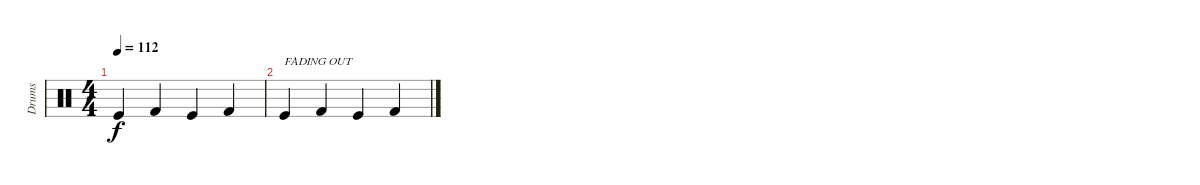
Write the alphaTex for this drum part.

\track ("Drums" "Drums") {instrument percussion}
\staff {score}
\articulation defaults
\ts (4 4)
\tempo 112
\clef neutral
\ks c "Kick (hit)".4{dy f} "Kick (hit) 2".4 "Kick (hit)".4 "Kick (hit) 2".4
|
"Kick (hit)".4{txt "FADING OUT"} "Kick (hit) 2".4 "Kick (hit)".4 "Kick (hit) 2".4
